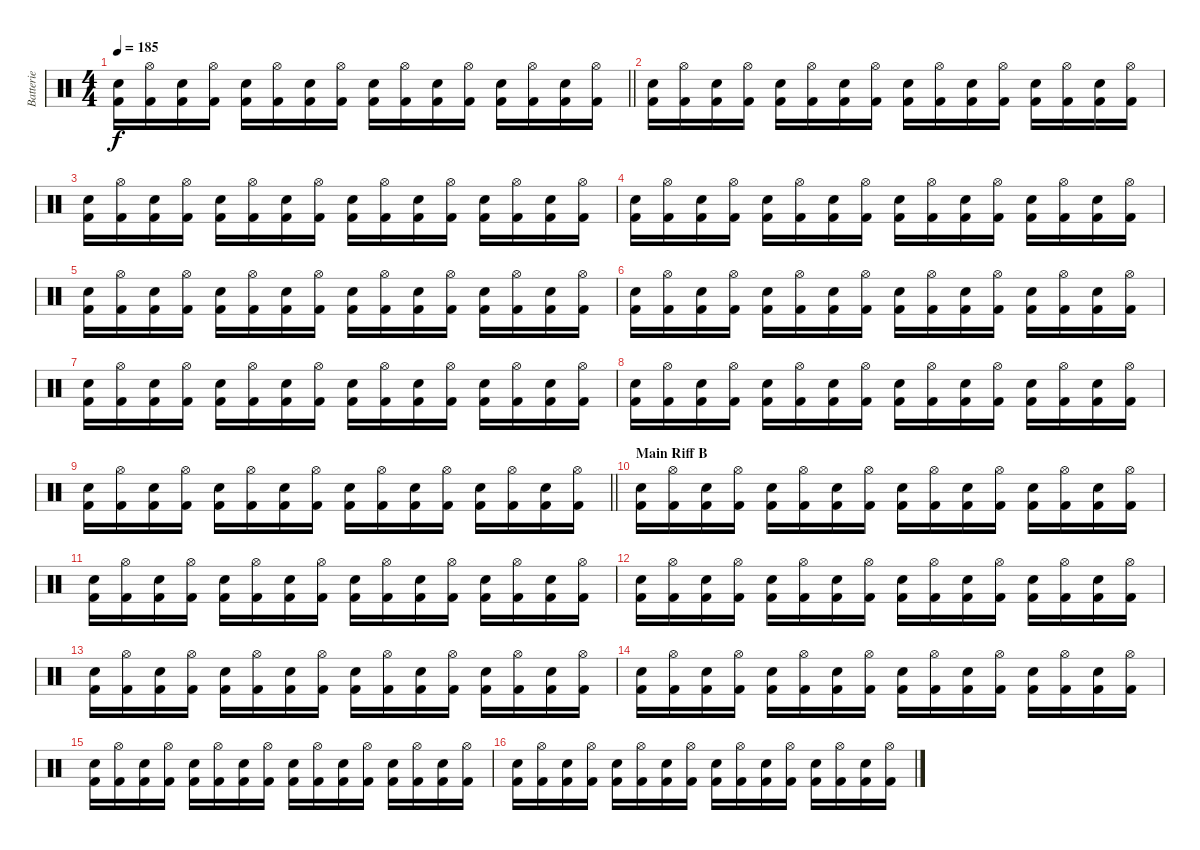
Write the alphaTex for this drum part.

\track ("Batterie" "Batterie") {instrument percussion}
\staff {score}
\articulation defaults
\ts (4 4)
\tempo 185
\clef neutral
\barLineRight lightlight
\ks c
("Electric Snare (hit)" "Kick (hit) 2").16{dy f} ("Hi-Hat (open)" "Kick (hit) 2").16 ("Electric Snare (hit)" "Kick (hit) 2").16 ("Hi-Hat (open)" "Kick (hit) 2").16 ("Electric Snare (hit)" "Kick (hit) 2").16 ("Hi-Hat (open)" "Kick (hit) 2").16 ("Electric Snare (hit)" "Kick (hit) 2").16 ("Hi-Hat (open)" "Kick (hit) 2").16 ("Electric Snare (hit)" "Kick (hit) 2").16 ("Hi-Hat (open)" "Kick (hit) 2").16 ("Electric Snare (hit)" "Kick (hit) 2").16 ("Hi-Hat (open)" "Kick (hit) 2").16 ("Electric Snare (hit)" "Kick (hit) 2").16 ("Hi-Hat (open)" "Kick (hit) 2").16 ("Electric Snare (hit)" "Kick (hit) 2").16 ("Hi-Hat (open)" "Kick (hit) 2").16 |
("Electric Snare (hit)" "Kick (hit) 2").16 ("Hi-Hat (open)" "Kick (hit) 2").16 ("Electric Snare (hit)" "Kick (hit) 2").16 ("Hi-Hat (open)" "Kick (hit) 2").16 ("Electric Snare (hit)" "Kick (hit) 2").16 ("Hi-Hat (open)" "Kick (hit) 2").16 ("Electric Snare (hit)" "Kick (hit) 2").16 ("Hi-Hat (open)" "Kick (hit) 2").16 ("Electric Snare (hit)" "Kick (hit) 2").16 ("Hi-Hat (open)" "Kick (hit) 2").16 ("Electric Snare (hit)" "Kick (hit) 2").16 ("Hi-Hat (open)" "Kick (hit) 2").16 ("Electric Snare (hit)" "Kick (hit) 2").16 ("Hi-Hat (open)" "Kick (hit) 2").16 ("Electric Snare (hit)" "Kick (hit) 2").16 ("Hi-Hat (open)" "Kick (hit) 2").16 |
("Electric Snare (hit)" "Kick (hit) 2").16 ("Hi-Hat (open)" "Kick (hit) 2").16 ("Electric Snare (hit)" "Kick (hit) 2").16 ("Hi-Hat (open)" "Kick (hit) 2").16 ("Electric Snare (hit)" "Kick (hit) 2").16 ("Hi-Hat (open)" "Kick (hit) 2").16 ("Electric Snare (hit)" "Kick (hit) 2").16 ("Hi-Hat (open)" "Kick (hit) 2").16 ("Electric Snare (hit)" "Kick (hit) 2").16 ("Hi-Hat (open)" "Kick (hit) 2").16 ("Electric Snare (hit)" "Kick (hit) 2").16 ("Hi-Hat (open)" "Kick (hit) 2").16 ("Electric Snare (hit)" "Kick (hit) 2").16 ("Hi-Hat (open)" "Kick (hit) 2").16 ("Electric Snare (hit)" "Kick (hit) 2").16 ("Hi-Hat (open)" "Kick (hit) 2").16 |
("Electric Snare (hit)" "Kick (hit) 2").16 ("Hi-Hat (open)" "Kick (hit) 2").16 ("Electric Snare (hit)" "Kick (hit) 2").16 ("Hi-Hat (open)" "Kick (hit) 2").16 ("Electric Snare (hit)" "Kick (hit) 2").16 ("Hi-Hat (open)" "Kick (hit) 2").16 ("Electric Snare (hit)" "Kick (hit) 2").16 ("Hi-Hat (open)" "Kick (hit) 2").16 ("Electric Snare (hit)" "Kick (hit) 2").16 ("Hi-Hat (open)" "Kick (hit) 2").16 ("Electric Snare (hit)" "Kick (hit) 2").16 ("Hi-Hat (open)" "Kick (hit) 2").16 ("Electric Snare (hit)" "Kick (hit) 2").16 ("Hi-Hat (open)" "Kick (hit) 2").16 ("Electric Snare (hit)" "Kick (hit) 2").16 ("Hi-Hat (open)" "Kick (hit) 2").16 |
("Electric Snare (hit)" "Kick (hit) 2").16 ("Hi-Hat (open)" "Kick (hit) 2").16 ("Electric Snare (hit)" "Kick (hit) 2").16 ("Hi-Hat (open)" "Kick (hit) 2").16 ("Electric Snare (hit)" "Kick (hit) 2").16 ("Hi-Hat (open)" "Kick (hit) 2").16 ("Electric Snare (hit)" "Kick (hit) 2").16 ("Hi-Hat (open)" "Kick (hit) 2").16 ("Electric Snare (hit)" "Kick (hit) 2").16 ("Hi-Hat (open)" "Kick (hit) 2").16 ("Electric Snare (hit)" "Kick (hit) 2").16 ("Hi-Hat (open)" "Kick (hit) 2").16 ("Electric Snare (hit)" "Kick (hit) 2").16 ("Hi-Hat (open)" "Kick (hit) 2").16 ("Electric Snare (hit)" "Kick (hit) 2").16 ("Hi-Hat (open)" "Kick (hit) 2").16 |
("Electric Snare (hit)" "Kick (hit) 2").16 ("Hi-Hat (open)" "Kick (hit) 2").16 ("Electric Snare (hit)" "Kick (hit) 2").16 ("Hi-Hat (open)" "Kick (hit) 2").16 ("Electric Snare (hit)" "Kick (hit) 2").16 ("Hi-Hat (open)" "Kick (hit) 2").16 ("Electric Snare (hit)" "Kick (hit) 2").16 ("Hi-Hat (open)" "Kick (hit) 2").16 ("Electric Snare (hit)" "Kick (hit) 2").16 ("Hi-Hat (open)" "Kick (hit) 2").16 ("Electric Snare (hit)" "Kick (hit) 2").16 ("Hi-Hat (open)" "Kick (hit) 2").16 ("Electric Snare (hit)" "Kick (hit) 2").16 ("Hi-Hat (open)" "Kick (hit) 2").16 ("Electric Snare (hit)" "Kick (hit) 2").16 ("Hi-Hat (open)" "Kick (hit) 2").16 |
("Electric Snare (hit)" "Kick (hit) 2").16 ("Hi-Hat (open)" "Kick (hit) 2").16 ("Electric Snare (hit)" "Kick (hit) 2").16 ("Hi-Hat (open)" "Kick (hit) 2").16 ("Electric Snare (hit)" "Kick (hit) 2").16 ("Hi-Hat (open)" "Kick (hit) 2").16 ("Electric Snare (hit)" "Kick (hit) 2").16 ("Hi-Hat (open)" "Kick (hit) 2").16 ("Electric Snare (hit)" "Kick (hit) 2").16 ("Hi-Hat (open)" "Kick (hit) 2").16 ("Electric Snare (hit)" "Kick (hit) 2").16 ("Hi-Hat (open)" "Kick (hit) 2").16 ("Electric Snare (hit)" "Kick (hit) 2").16 ("Hi-Hat (open)" "Kick (hit) 2").16 ("Electric Snare (hit)" "Kick (hit) 2").16 ("Hi-Hat (open)" "Kick (hit) 2").16 |
("Electric Snare (hit)" "Kick (hit) 2").16 ("Hi-Hat (open)" "Kick (hit) 2").16 ("Electric Snare (hit)" "Kick (hit) 2").16 ("Hi-Hat (open)" "Kick (hit) 2").16 ("Electric Snare (hit)" "Kick (hit) 2").16 ("Hi-Hat (open)" "Kick (hit) 2").16 ("Electric Snare (hit)" "Kick (hit) 2").16 ("Hi-Hat (open)" "Kick (hit) 2").16 ("Electric Snare (hit)" "Kick (hit) 2").16 ("Hi-Hat (open)" "Kick (hit) 2").16 ("Electric Snare (hit)" "Kick (hit) 2").16 ("Hi-Hat (open)" "Kick (hit) 2").16 ("Electric Snare (hit)" "Kick (hit) 2").16 ("Hi-Hat (open)" "Kick (hit) 2").16 ("Electric Snare (hit)" "Kick (hit) 2").16 ("Hi-Hat (open)" "Kick (hit) 2").16 |
\barLineRight lightlight
("Electric Snare (hit)" "Kick (hit) 2").16 ("Hi-Hat (open)" "Kick (hit) 2").16 ("Electric Snare (hit)" "Kick (hit) 2").16 ("Hi-Hat (open)" "Kick (hit) 2").16 ("Electric Snare (hit)" "Kick (hit) 2").16 ("Hi-Hat (open)" "Kick (hit) 2").16 ("Electric Snare (hit)" "Kick (hit) 2").16 ("Hi-Hat (open)" "Kick (hit) 2").16 ("Electric Snare (hit)" "Kick (hit) 2").16 ("Hi-Hat (open)" "Kick (hit) 2").16 ("Electric Snare (hit)" "Kick (hit) 2").16 ("Hi-Hat (open)" "Kick (hit) 2").16 ("Electric Snare (hit)" "Kick (hit) 2").16 ("Hi-Hat (open)" "Kick (hit) 2").16 ("Electric Snare (hit)" "Kick (hit) 2").16 ("Hi-Hat (open)" "Kick (hit) 2").16 |
\section ("" "Main Riff B")
("Electric Snare (hit)" "Kick (hit) 2").16 ("Hi-Hat (open)" "Kick (hit) 2").16 ("Electric Snare (hit)" "Kick (hit) 2").16 ("Hi-Hat (open)" "Kick (hit) 2").16 ("Electric Snare (hit)" "Kick (hit) 2").16 ("Hi-Hat (open)" "Kick (hit) 2").16 ("Electric Snare (hit)" "Kick (hit) 2").16 ("Hi-Hat (open)" "Kick (hit) 2").16 ("Electric Snare (hit)" "Kick (hit) 2").16 ("Hi-Hat (open)" "Kick (hit) 2").16 ("Electric Snare (hit)" "Kick (hit) 2").16 ("Hi-Hat (open)" "Kick (hit) 2").16 ("Electric Snare (hit)" "Kick (hit) 2").16 ("Hi-Hat (open)" "Kick (hit) 2").16 ("Electric Snare (hit)" "Kick (hit) 2").16 ("Hi-Hat (open)" "Kick (hit) 2").16 |
("Electric Snare (hit)" "Kick (hit) 2").16 ("Hi-Hat (open)" "Kick (hit) 2").16 ("Electric Snare (hit)" "Kick (hit) 2").16 ("Hi-Hat (open)" "Kick (hit) 2").16 ("Electric Snare (hit)" "Kick (hit) 2").16 ("Hi-Hat (open)" "Kick (hit) 2").16 ("Electric Snare (hit)" "Kick (hit) 2").16 ("Hi-Hat (open)" "Kick (hit) 2").16 ("Electric Snare (hit)" "Kick (hit) 2").16 ("Hi-Hat (open)" "Kick (hit) 2").16 ("Electric Snare (hit)" "Kick (hit) 2").16 ("Hi-Hat (open)" "Kick (hit) 2").16 ("Electric Snare (hit)" "Kick (hit) 2").16 ("Hi-Hat (open)" "Kick (hit) 2").16 ("Electric Snare (hit)" "Kick (hit) 2").16 ("Hi-Hat (open)" "Kick (hit) 2").16 |
("Electric Snare (hit)" "Kick (hit) 2").16 ("Hi-Hat (open)" "Kick (hit) 2").16 ("Electric Snare (hit)" "Kick (hit) 2").16 ("Hi-Hat (open)" "Kick (hit) 2").16 ("Electric Snare (hit)" "Kick (hit) 2").16 ("Hi-Hat (open)" "Kick (hit) 2").16 ("Electric Snare (hit)" "Kick (hit) 2").16 ("Hi-Hat (open)" "Kick (hit) 2").16 ("Electric Snare (hit)" "Kick (hit) 2").16 ("Hi-Hat (open)" "Kick (hit) 2").16 ("Electric Snare (hit)" "Kick (hit) 2").16 ("Hi-Hat (open)" "Kick (hit) 2").16 ("Electric Snare (hit)" "Kick (hit) 2").16 ("Hi-Hat (open)" "Kick (hit) 2").16 ("Electric Snare (hit)" "Kick (hit) 2").16 ("Hi-Hat (open)" "Kick (hit) 2").16 |
("Electric Snare (hit)" "Kick (hit) 2").16 ("Hi-Hat (open)" "Kick (hit) 2").16 ("Electric Snare (hit)" "Kick (hit) 2").16 ("Hi-Hat (open)" "Kick (hit) 2").16 ("Electric Snare (hit)" "Kick (hit) 2").16 ("Hi-Hat (open)" "Kick (hit) 2").16 ("Electric Snare (hit)" "Kick (hit) 2").16 ("Hi-Hat (open)" "Kick (hit) 2").16 ("Electric Snare (hit)" "Kick (hit) 2").16 ("Hi-Hat (open)" "Kick (hit) 2").16 ("Electric Snare (hit)" "Kick (hit) 2").16 ("Hi-Hat (open)" "Kick (hit) 2").16 ("Electric Snare (hit)" "Kick (hit) 2").16 ("Hi-Hat (open)" "Kick (hit) 2").16 ("Electric Snare (hit)" "Kick (hit) 2").16 ("Hi-Hat (open)" "Kick (hit) 2").16 |
("Electric Snare (hit)" "Kick (hit) 2").16 ("Hi-Hat (open)" "Kick (hit) 2").16 ("Electric Snare (hit)" "Kick (hit) 2").16 ("Hi-Hat (open)" "Kick (hit) 2").16 ("Electric Snare (hit)" "Kick (hit) 2").16 ("Hi-Hat (open)" "Kick (hit) 2").16 ("Electric Snare (hit)" "Kick (hit) 2").16 ("Hi-Hat (open)" "Kick (hit) 2").16 ("Electric Snare (hit)" "Kick (hit) 2").16 ("Hi-Hat (open)" "Kick (hit) 2").16 ("Electric Snare (hit)" "Kick (hit) 2").16 ("Hi-Hat (open)" "Kick (hit) 2").16 ("Electric Snare (hit)" "Kick (hit) 2").16 ("Hi-Hat (open)" "Kick (hit) 2").16 ("Electric Snare (hit)" "Kick (hit) 2").16 ("Hi-Hat (open)" "Kick (hit) 2").16 |
("Electric Snare (hit)" "Kick (hit) 2").16 ("Hi-Hat (open)" "Kick (hit) 2").16 ("Electric Snare (hit)" "Kick (hit) 2").16 ("Hi-Hat (open)" "Kick (hit) 2").16 ("Electric Snare (hit)" "Kick (hit) 2").16 ("Hi-Hat (open)" "Kick (hit) 2").16 ("Electric Snare (hit)" "Kick (hit) 2").16 ("Hi-Hat (open)" "Kick (hit) 2").16 ("Electric Snare (hit)" "Kick (hit) 2").16 ("Hi-Hat (open)" "Kick (hit) 2").16 ("Electric Snare (hit)" "Kick (hit) 2").16 ("Hi-Hat (open)" "Kick (hit) 2").16 ("Electric Snare (hit)" "Kick (hit) 2").16 ("Hi-Hat (open)" "Kick (hit) 2").16 ("Electric Snare (hit)" "Kick (hit) 2").16 ("Hi-Hat (open)" "Kick (hit) 2").16 |
("Electric Snare (hit)" "Kick (hit) 2").16 ("Hi-Hat (open)" "Kick (hit) 2").16 ("Electric Snare (hit)" "Kick (hit) 2").16 ("Hi-Hat (open)" "Kick (hit) 2").16 ("Electric Snare (hit)" "Kick (hit) 2").16 ("Hi-Hat (open)" "Kick (hit) 2").16 ("Electric Snare (hit)" "Kick (hit) 2").16 ("Hi-Hat (open)" "Kick (hit) 2").16 ("Electric Snare (hit)" "Kick (hit) 2").16 ("Hi-Hat (open)" "Kick (hit) 2").16 ("Electric Snare (hit)" "Kick (hit) 2").16 ("Hi-Hat (open)" "Kick (hit) 2").16 ("Electric Snare (hit)" "Kick (hit) 2").16 ("Hi-Hat (open)" "Kick (hit) 2").16 ("Electric Snare (hit)" "Kick (hit) 2").16 ("Hi-Hat (open)" "Kick (hit) 2").16
